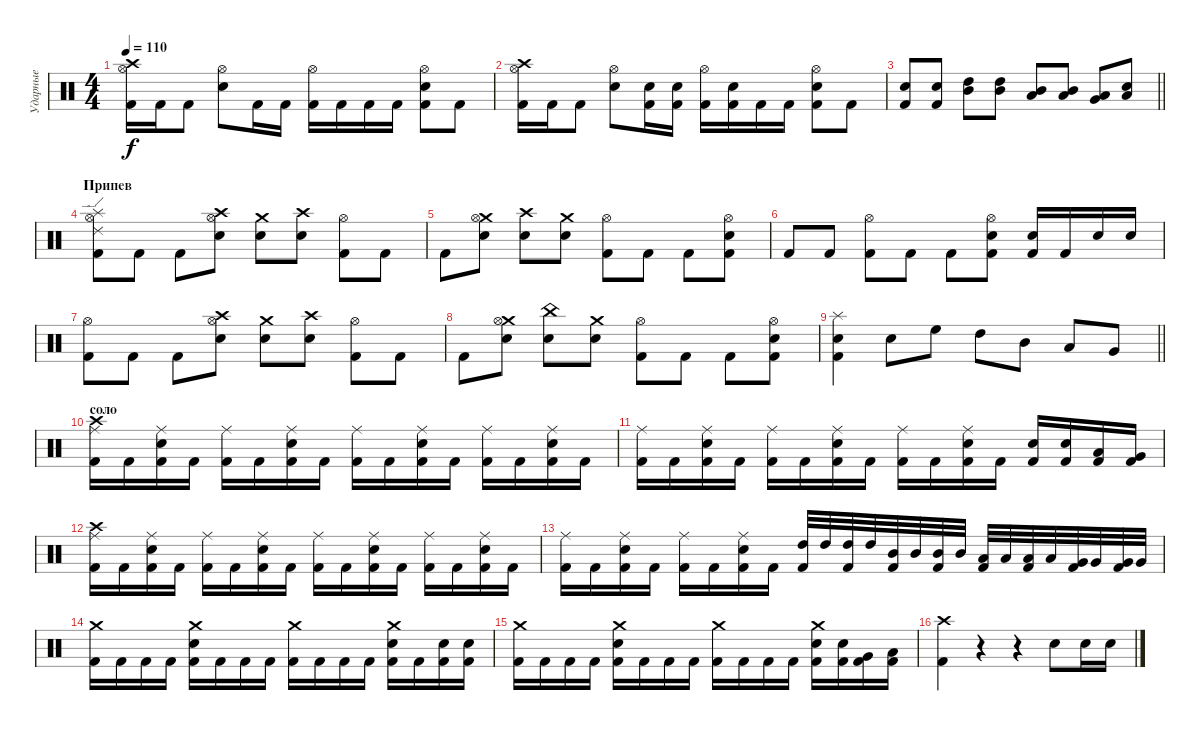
\track ("Ударные" "Ударные") {instrument percussion}
\staff {score}
\articulation defaults
\ts (4 4)
\tempo 110
\clef neutral
\ks c
("Crash high (hit)" "Hi-Hat (open)" "Kick (hit) 2").16{dy f} "Kick (hit) 2".16 "Kick (hit) 2".8 ("Hi-Hat (open)" "Snare (hit) 2").8 "Kick (hit) 2".16 "Kick (hit) 2".16 ("Hi-Hat (open)" "Kick (hit) 2").16 "Kick (hit) 2".16 "Kick (hit) 2".16 "Kick (hit) 2".16 ("Hi-Hat (open)" "Snare (hit) 2" "Kick (hit) 2").8 "Kick (hit) 2".8 |
("Crash high (hit)" "Hi-Hat (open)" "Kick (hit) 2").16 "Kick (hit) 2".16 "Kick (hit) 2".8 ("Hi-Hat (open)" "Snare (hit) 2").8 ("Snare (hit) 2" "Kick (hit) 2").16 ("Snare (hit) 2" "Kick (hit) 2").16 ("Hi-Hat (open)" "Kick (hit) 2").16 ("Snare (hit) 2" "Kick (hit) 2").16 "Kick (hit) 2".16 "Kick (hit) 2".16 ("Hi-Hat (open)" "Snare (hit) 2" "Kick (hit) 2").8 "Kick (hit) 2".8 |
\barLineRight lightlight
("Snare (hit) 2" "Kick (hit) 2").8 ("Snare (hit) 2" "Kick (hit) 2").8 ("High Tom (hit)" "Mid Tom (hit)").8 ("High Tom (hit)" "Mid Tom (hit)").8 ("Mid Tom (hit)" "Low Tom (hit)").8 ("Mid Tom (hit)" "Low Tom (hit)").8 ("Low Tom (hit)" "Very Low Tom (hit)").8 ("Low Tom (hit)" "Metronome (bell)").8 |
\section ("" "Припев")
("Kick (hit) 2" "Ride (edge) 2" "Splash (hit)" "Hi-Hat (open)").8 "Kick (hit) 2".8 "Kick (hit) 2".8 ("Crash high (hit)" "Snare (hit) 2" "Hi-Hat (open)").8 ("Crash medium (hit)" "Snare (hit) 2").8 ("Crash high (hit)" "Snare (hit) 2").8 ("Kick (hit) 2" "Hi-Hat (open)").8 "Kick (hit) 2".8 |
"Kick (hit) 2".8 ("Crash medium (hit)" "Snare (hit) 2" "Hi-Hat (open)").8 ("Crash high (hit)" "Snare (hit) 2").8 ("Crash medium (hit)" "Snare (hit) 2").8 ("Kick (hit) 2" "Hi-Hat (open)").8 "Kick (hit) 2".8 "Kick (hit) 2".8 ("Kick (hit) 2" "Snare (hit) 2" "Hi-Hat (open)").8 |
"Kick (hit) 2".8 "Kick (hit) 2".8 ("Kick (hit) 2" "Hi-Hat (open)").8 "Kick (hit) 2".8 "Kick (hit) 2".8 ("Kick (hit) 2" "Snare (hit) 2" "Hi-Hat (open)").8 ("Kick (hit) 2" "Snare (hit) 2").16 "Kick (hit) 2".16 "Snare (hit) 2".16 "Snare (hit) 2".16 |
("Kick (hit) 2" "Hi-Hat (open)").8 "Kick (hit) 2".8 "Kick (hit) 2".8 ("Crash high (hit)" "Snare (hit) 2" "Hi-Hat (open)").8 ("Crash medium (hit)" "Snare (hit) 2").8 ("Crash high (hit)" "Snare (hit) 2").8 ("Kick (hit) 2" "Hi-Hat (open)").8 "Kick (hit) 2".8 |
"Kick (hit) 2".8 ("Crash medium (hit)" "Snare (hit) 2" "Hi-Hat (open)").8 ("China (hit)" "Snare (hit) 2").8 ("Crash medium (hit)" "Snare (hit) 2").8 ("Kick (hit) 2" "Hi-Hat (open)").8 "Kick (hit) 2".8 "Kick (hit) 2".8 ("Kick (hit) 2" "Snare (hit) 2" "Hi-Hat (open)").8 |
\barLineRight lightlight
("Kick (hit) 2" "Snare (hit) 2" "Splash (hit)").4 "Snare (hit) 2".8 "High Floor Tom (hit)".8 "High Tom (hit)".8 "Mid Tom (hit)".8 "Low Tom (hit)".8 "Very Low Tom (hit)".8 |
\section ("" "соло")
("Crash high (hit)" "Ride (middle)" "Kick (hit) 2").16 "Kick (hit) 2".16 ("Snare (hit) 2" "Ride (middle)" "Kick (hit) 2").16 "Kick (hit) 2".16 ("Ride (middle)" "Kick (hit) 2").16 "Kick (hit) 2".16 ("Snare (hit) 2" "Ride (middle)" "Kick (hit) 2").16 "Kick (hit) 2".16 ("Ride (middle)" "Kick (hit) 2").16 "Kick (hit) 2".16 ("Snare (hit) 2" "Ride (middle)" "Kick (hit) 2").16 "Kick (hit) 2".16 ("Ride (middle)" "Kick (hit) 2").16 "Kick (hit) 2".16 ("Snare (hit) 2" "Ride (middle)" "Kick (hit) 2").16 "Kick (hit) 2".16 |
("Ride (middle)" "Kick (hit) 2").16 "Kick (hit) 2".16 ("Snare (hit) 2" "Ride (middle)" "Kick (hit) 2").16 "Kick (hit) 2".16 ("Ride (middle)" "Kick (hit) 2").16 "Kick (hit) 2".16 ("Snare (hit) 2" "Ride (middle)" "Kick (hit) 2").16 "Kick (hit) 2".16 ("Ride (middle)" "Kick (hit) 2").16 "Kick (hit) 2".16 ("Snare (hit) 2" "Ride (middle)" "Kick (hit) 2").16 "Kick (hit) 2".16 ("Snare (hit) 2" "Kick (hit) 2").16 ("Snare (hit) 2" "Kick (hit) 2").16 ("Low Tom (hit)" "Kick (hit) 2").16 ("Very Low Tom (hit)" "Kick (hit) 2").16 |
("Crash high (hit)" "Ride (middle)" "Kick (hit) 2").16 "Kick (hit) 2".16 ("Snare (hit) 2" "Ride (middle)" "Kick (hit) 2").16 "Kick (hit) 2".16 ("Ride (middle)" "Kick (hit) 2").16 "Kick (hit) 2".16 ("Snare (hit) 2" "Ride (middle)" "Kick (hit) 2").16 "Kick (hit) 2".16 ("Ride (middle)" "Kick (hit) 2").16 "Kick (hit) 2".16 ("Snare (hit) 2" "Ride (middle)" "Kick (hit) 2").16 "Kick (hit) 2".16 ("Ride (middle)" "Kick (hit) 2").16 "Kick (hit) 2".16 ("Snare (hit) 2" "Ride (middle)" "Kick (hit) 2").16 "Kick (hit) 2".16 |
("Ride (middle)" "Kick (hit) 2").16 "Kick (hit) 2".16 ("Snare (hit) 2" "Ride (middle)" "Kick (hit) 2").16 "Kick (hit) 2".16 ("Ride (middle)" "Kick (hit) 2").16 "Kick (hit) 2".16 ("Snare (hit) 2" "Ride (middle)" "Kick (hit) 2").16 "Kick (hit) 2".16 ("High Tom (hit)" "Kick (hit) 2").32 "High Tom (hit)".32 ("High Tom (hit)" "Kick (hit) 2").32 "High Tom (hit)".32 ("Mid Tom (hit)" "Kick (hit) 2").32 "Mid Tom (hit)".32 ("Mid Tom (hit)" "Kick (hit) 2").32 "Mid Tom (hit)".32 ("Low Tom (hit)" "Kick (hit) 2").32 "Low Tom (hit)".32 ("Low Tom (hit)" "Kick (hit) 2").32 "Low Tom (hit)".32 ("Very Low Tom (hit)" "Kick (hit) 2").32 "Very Low Tom (hit)".32 ("Very Low Tom (hit)" "Kick (hit) 2").32 "Very Low Tom (hit)".32 |
("Crash medium (hit)" "Kick (hit) 2").16 "Kick (hit) 2".16 "Kick (hit) 2".16 "Kick (hit) 2".16 ("Snare (hit) 2" "Crash medium (hit)" "Kick (hit) 2").16 "Kick (hit) 2".16 "Kick (hit) 2".16 "Kick (hit) 2".16 ("Crash medium (hit)" "Kick (hit) 2").16 "Kick (hit) 2".16 "Kick (hit) 2".16 "Kick (hit) 2".16 ("Snare (hit) 2" "Crash medium (hit)" "Kick (hit) 2").16 "Kick (hit) 2".16 ("Snare (hit) 2" "Kick (hit) 2").16 ("Snare (hit) 2" "Kick (hit) 2").16 |
("Crash medium (hit)" "Kick (hit) 2").16 "Kick (hit) 2".16 "Kick (hit) 2".16 "Kick (hit) 2".16 ("Snare (hit) 2" "Crash medium (hit)" "Kick (hit) 2").16 "Kick (hit) 2".16 "Kick (hit) 2".16 "Kick (hit) 2".16 ("Crash medium (hit)" "Kick (hit) 2").16 "Kick (hit) 2".16 "Kick (hit) 2".16 "Kick (hit) 2".16 ("Snare (hit) 2" "Crash medium (hit)" "Kick (hit) 2").16 ("Snare (hit) 2" "Kick (hit) 2").16 ("Very Low Tom (hit)" "Kick (hit) 2").16 ("Low Floor Tom (hit)" "Kick (hit) 2").16 |
("Crash high (hit)" "Kick (hit) 2").4 r.4 r.4 "Snare (hit) 2".8 "Snare (hit) 2".16 "Snare (hit) 2".16
